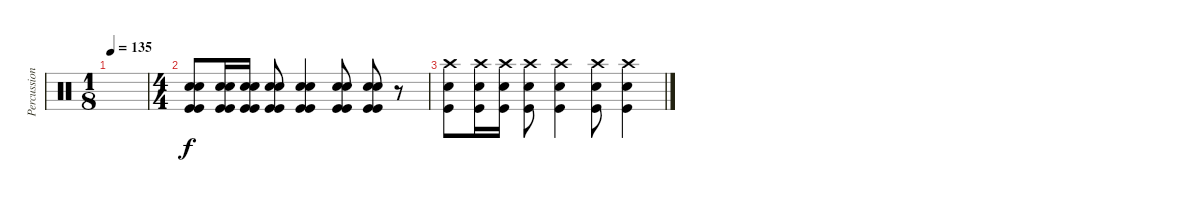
\track ("Percussion" "Percussion") {instrument percussion}
\staff {score}
\articulation defaults
\ts (1 8)
\tempo 135
\clef neutral
\ks c
|
\ts (4 4)
("Snare (hit) 2" "Hand Clap (hit)" "Kick (hit)" "Kick (hit)").8 ("Snare (hit) 2" "Hand Clap (hit)" "Kick (hit)" "Kick (hit)").16 ("Snare (hit) 2" "Hand Clap (hit)" "Kick (hit)" "Kick (hit)").16 ("Snare (hit) 2" "Hand Clap (hit)" "Kick (hit)" "Kick (hit)").8 ("Snare (hit) 2" "Hand Clap (hit)" "Kick (hit)" "Kick (hit)").4 ("Snare (hit) 2" "Hand Clap (hit)" "Kick (hit)" "Kick (hit)").8 ("Snare (hit) 2" "Hand Clap (hit)" "Kick (hit)" "Kick (hit)").8 r.8 |
("Snare (hit) 2" "Crash high (hit)" "Kick (hit)").8 ("Snare (hit) 2" "Crash high (hit)" "Kick (hit)").16 ("Snare (hit) 2" "Crash high (hit)" "Kick (hit)").16 ("Snare (hit) 2" "Crash high (hit)" "Kick (hit)").8 ("Snare (hit) 2" "Crash high (hit)" "Kick (hit)").4 ("Snare (hit) 2" "Crash high (hit)" "Kick (hit)").8 ("Snare (hit) 2" "Crash high (hit)" "Kick (hit)").4
